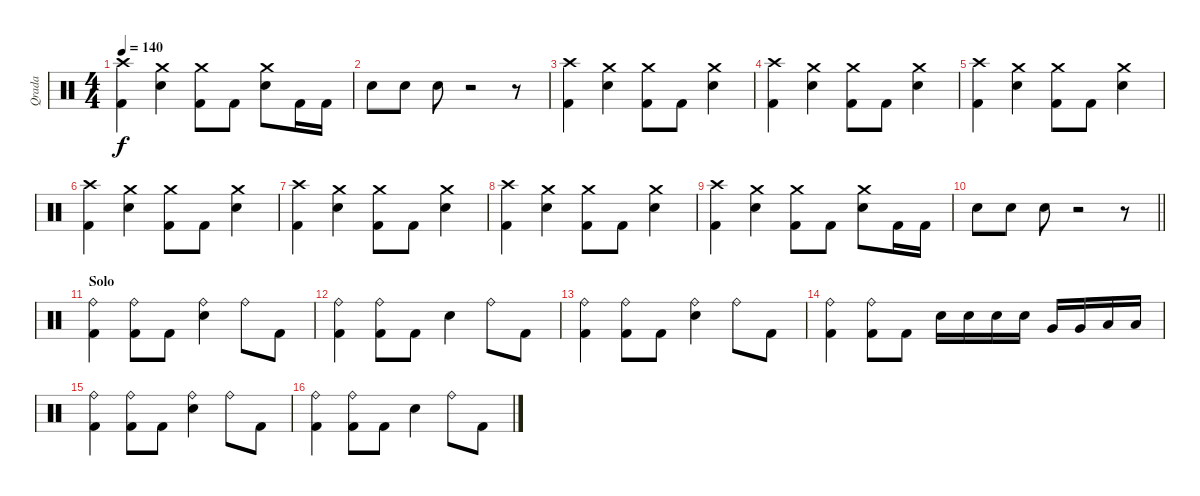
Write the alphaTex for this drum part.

\track ("Qrada" "Qrada") {instrument percussion}
\staff {score}
\articulation defaults
\ts (4 4)
\tempo 140
\clef neutral
\ks c
("Kick (hit) 2" "Crash high (hit)").4{dy f} ("Snare (hit) 2" "Crash medium (hit)").4 ("Kick (hit) 2" "Crash medium (hit)").8 "Kick (hit) 2".8 ("Snare (hit) 2" "Crash medium (hit)").8 "Kick (hit) 2".16 "Kick (hit) 2".16 |
"Snare (hit) 2".8 "Snare (hit) 2".8 "Snare (hit) 2".8 r.2 r.8 |
("Kick (hit) 2" "Crash high (hit)").4 ("Snare (hit) 2" "Crash medium (hit)").4 ("Kick (hit) 2" "Crash medium (hit)").8 "Kick (hit) 2".8 ("Snare (hit) 2" "Crash medium (hit)").4 |
("Kick (hit) 2" "Crash high (hit)").4 ("Snare (hit) 2" "Crash medium (hit)").4 ("Kick (hit) 2" "Crash medium (hit)").8 "Kick (hit) 2".8 ("Snare (hit) 2" "Crash medium (hit)").4 |
("Kick (hit) 2" "Crash high (hit)").4 ("Snare (hit) 2" "Crash medium (hit)").4 ("Kick (hit) 2" "Crash medium (hit)").8 "Kick (hit) 2".8 ("Snare (hit) 2" "Crash medium (hit)").4 |
("Kick (hit) 2" "Crash high (hit)").4 ("Snare (hit) 2" "Crash medium (hit)").4 ("Kick (hit) 2" "Crash medium (hit)").8 "Kick (hit) 2".8 ("Snare (hit) 2" "Crash medium (hit)").4 |
("Kick (hit) 2" "Crash high (hit)").4 ("Snare (hit) 2" "Crash medium (hit)").4 ("Kick (hit) 2" "Crash medium (hit)").8 "Kick (hit) 2".8 ("Snare (hit) 2" "Crash medium (hit)").4 |
("Kick (hit) 2" "Crash high (hit)").4 ("Snare (hit) 2" "Crash medium (hit)").4 ("Kick (hit) 2" "Crash medium (hit)").8 "Kick (hit) 2".8 ("Snare (hit) 2" "Crash medium (hit)").4 |
("Kick (hit) 2" "Crash high (hit)").4 ("Snare (hit) 2" "Crash medium (hit)").4 ("Kick (hit) 2" "Crash medium (hit)").8 "Kick (hit) 2".8 ("Snare (hit) 2" "Crash medium (hit)").8 "Kick (hit) 2".16 "Kick (hit) 2".16 |
\barLineRight lightlight "Snare (hit) 2".8 "Snare (hit) 2".8 "Snare (hit) 2".8
r.2 r.8 |
\section ("" "Solo")
("Kick (hit) 2" "Ride (bell)").4 ("Kick (hit) 2" "Ride (bell)").8 "Kick (hit) 2".8 ("Snare (hit) 2" "Ride (bell)").4 "Ride (bell)".8 "Kick (hit) 2".8 |
("Kick (hit) 2" "Ride (bell)").4 ("Kick (hit) 2" "Ride (bell)").8 "Kick (hit) 2".8 "Snare (hit) 2".4 "Ride (bell)".8 "Kick (hit) 2".8 |
("Kick (hit) 2" "Ride (bell)").4 ("Kick (hit) 2" "Ride (bell)").8 "Kick (hit) 2".8 ("Snare (hit) 2" "Ride (bell)").4 "Ride (bell)".8 "Kick (hit) 2".8 |
("Kick (hit) 2" "Ride (bell)").4 ("Kick (hit) 2" "Ride (bell)").8 "Kick (hit) 2".8 "Snare (hit) 2".16 "Snare (hit) 2".16 "Snare (hit) 2".16 "Snare (hit) 2".16 "Very Low Tom (hit)".16 "Very Low Tom (hit)".16 "Low Floor Tom (hit)".16 "Low Floor Tom (hit)".16 |
("Kick (hit) 2" "Ride (bell)").4 ("Kick (hit) 2" "Ride (bell)").8 "Kick (hit) 2".8 ("Snare (hit) 2" "Ride (bell)").4 "Ride (bell)".8 "Kick (hit) 2".8 |
("Kick (hit) 2" "Ride (bell)").4 ("Kick (hit) 2" "Ride (bell)").8 "Kick (hit) 2".8 "Snare (hit) 2".4 "Ride (bell)".8 "Kick (hit) 2".8
